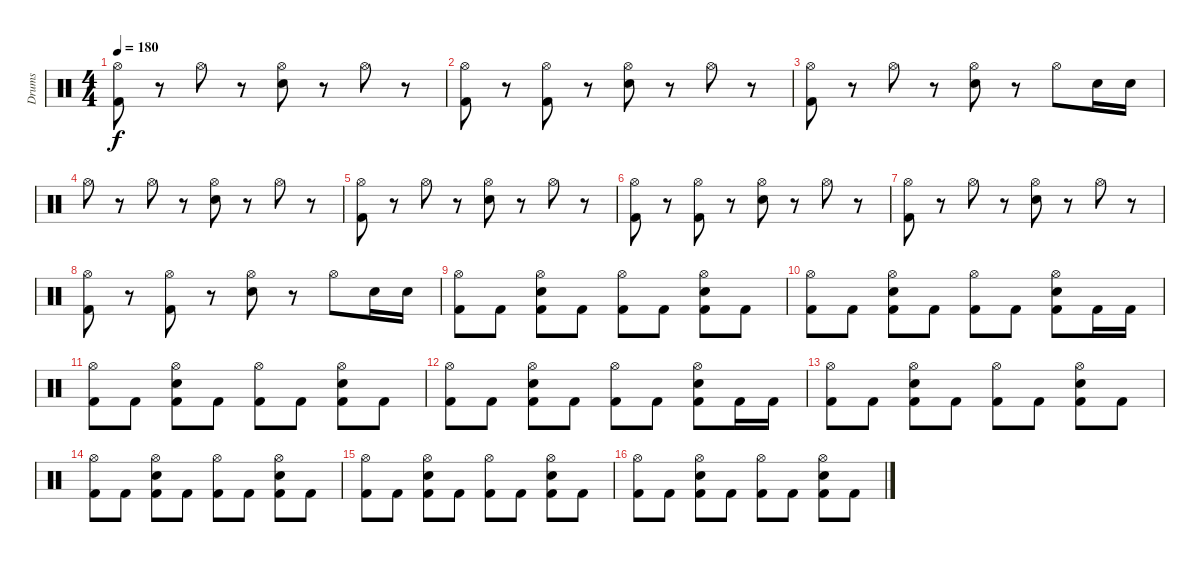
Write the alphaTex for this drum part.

\track ("Drums" "Drums") {instrument percussion}
\staff {score}
\articulation defaults
\ts (4 4)
\tempo 180
\clef neutral
\ks c
("Hi-Hat (open)" "Kick (hit) 2").8{dy f} r.8 "Hi-Hat (open)".8 r.8 ("Hi-Hat (open)" "Electric Snare (hit)").8 r.8 "Hi-Hat (open)".8 r.8 |
("Hi-Hat (open)" "Kick (hit) 2").8 r.8 ("Hi-Hat (open)" "Kick (hit) 2").8 r.8 ("Hi-Hat (open)" "Electric Snare (hit)").8 r.8 "Hi-Hat (open)".8 r.8 |
("Hi-Hat (open)" "Kick (hit) 2").8 r.8 "Hi-Hat (open)".8 r.8 ("Hi-Hat (open)" "Electric Snare (hit)").8 r.8 "Hi-Hat (open)".8 "Electric Snare (hit)".16 "Electric Snare (hit)".16 |
"Hi-Hat (open)".8 r.8 "Hi-Hat (open)".8 r.8 ("Hi-Hat (open)" "Electric Snare (hit)").8 r.8 "Hi-Hat (open)".8 r.8 |
("Hi-Hat (open)" "Kick (hit) 2").8 r.8 "Hi-Hat (open)".8 r.8 ("Hi-Hat (open)" "Electric Snare (hit)").8 r.8 "Hi-Hat (open)".8 r.8 |
("Hi-Hat (open)" "Kick (hit) 2").8 r.8 ("Hi-Hat (open)" "Kick (hit) 2").8 r.8 ("Hi-Hat (open)" "Electric Snare (hit)").8 r.8 "Hi-Hat (open)".8 r.8 |
("Hi-Hat (open)" "Kick (hit) 2").8 r.8 "Hi-Hat (open)".8 r.8 ("Hi-Hat (open)" "Electric Snare (hit)").8 r.8 "Hi-Hat (open)".8 r.8 |
("Hi-Hat (open)" "Kick (hit) 2").8 r.8 ("Hi-Hat (open)" "Kick (hit) 2").8 r.8 ("Hi-Hat (open)" "Electric Snare (hit)").8 r.8 "Hi-Hat (open)".8 "Electric Snare (hit)".16 "Electric Snare (hit)".16 |
("Hi-Hat (open)" "Kick (hit) 2").8 "Kick (hit) 2".8 ("Hi-Hat (open)" "Electric Snare (hit)" "Kick (hit) 2").8 "Kick (hit) 2".8 ("Hi-Hat (open)" "Kick (hit) 2").8 "Kick (hit) 2".8 ("Hi-Hat (open)" "Electric Snare (hit)" "Kick (hit) 2").8 "Kick (hit) 2".8 |
("Hi-Hat (open)" "Kick (hit) 2").8 "Kick (hit) 2".8 ("Hi-Hat (open)" "Electric Snare (hit)" "Kick (hit) 2").8 "Kick (hit) 2".8 ("Hi-Hat (open)" "Kick (hit) 2").8 "Kick (hit) 2".8 ("Hi-Hat (open)" "Electric Snare (hit)" "Kick (hit) 2").8 "Kick (hit) 2".16 "Kick (hit) 2".16 |
("Hi-Hat (open)" "Kick (hit) 2").8 "Kick (hit) 2".8 ("Hi-Hat (open)" "Electric Snare (hit)" "Kick (hit) 2").8 "Kick (hit) 2".8 ("Hi-Hat (open)" "Kick (hit) 2").8 "Kick (hit) 2".8 ("Hi-Hat (open)" "Electric Snare (hit)" "Kick (hit) 2").8 "Kick (hit) 2".8 |
("Hi-Hat (open)" "Kick (hit) 2").8 "Kick (hit) 2".8 ("Hi-Hat (open)" "Electric Snare (hit)" "Kick (hit) 2").8 "Kick (hit) 2".8 ("Hi-Hat (open)" "Kick (hit) 2").8 "Kick (hit) 2".8 ("Hi-Hat (open)" "Electric Snare (hit)" "Kick (hit) 2").8 "Kick (hit) 2".16 "Kick (hit) 2".16 |
("Hi-Hat (open)" "Kick (hit) 2").8 "Kick (hit) 2".8 ("Hi-Hat (open)" "Electric Snare (hit)" "Kick (hit) 2").8 "Kick (hit) 2".8 ("Hi-Hat (open)" "Kick (hit) 2").8 "Kick (hit) 2".8 ("Hi-Hat (open)" "Electric Snare (hit)" "Kick (hit) 2").8 "Kick (hit) 2".8 |
("Hi-Hat (open)" "Kick (hit) 2").8 "Kick (hit) 2".8 ("Hi-Hat (open)" "Electric Snare (hit)" "Kick (hit) 2").8 "Kick (hit) 2".8 ("Hi-Hat (open)" "Kick (hit) 2").8 "Kick (hit) 2".8 ("Hi-Hat (open)" "Electric Snare (hit)" "Kick (hit) 2").8 "Kick (hit) 2".8 |
("Hi-Hat (open)" "Kick (hit) 2").8 "Kick (hit) 2".8 ("Hi-Hat (open)" "Electric Snare (hit)" "Kick (hit) 2").8 "Kick (hit) 2".8 ("Hi-Hat (open)" "Kick (hit) 2").8 "Kick (hit) 2".8 ("Hi-Hat (open)" "Electric Snare (hit)" "Kick (hit) 2").8 "Kick (hit) 2".8 |
("Hi-Hat (open)" "Kick (hit) 2").8 "Kick (hit) 2".8 ("Hi-Hat (open)" "Electric Snare (hit)" "Kick (hit) 2").8 "Kick (hit) 2".8 ("Hi-Hat (open)" "Kick (hit) 2").8 "Kick (hit) 2".8 ("Hi-Hat (open)" "Electric Snare (hit)" "Kick (hit) 2").8 "Kick (hit) 2".8
